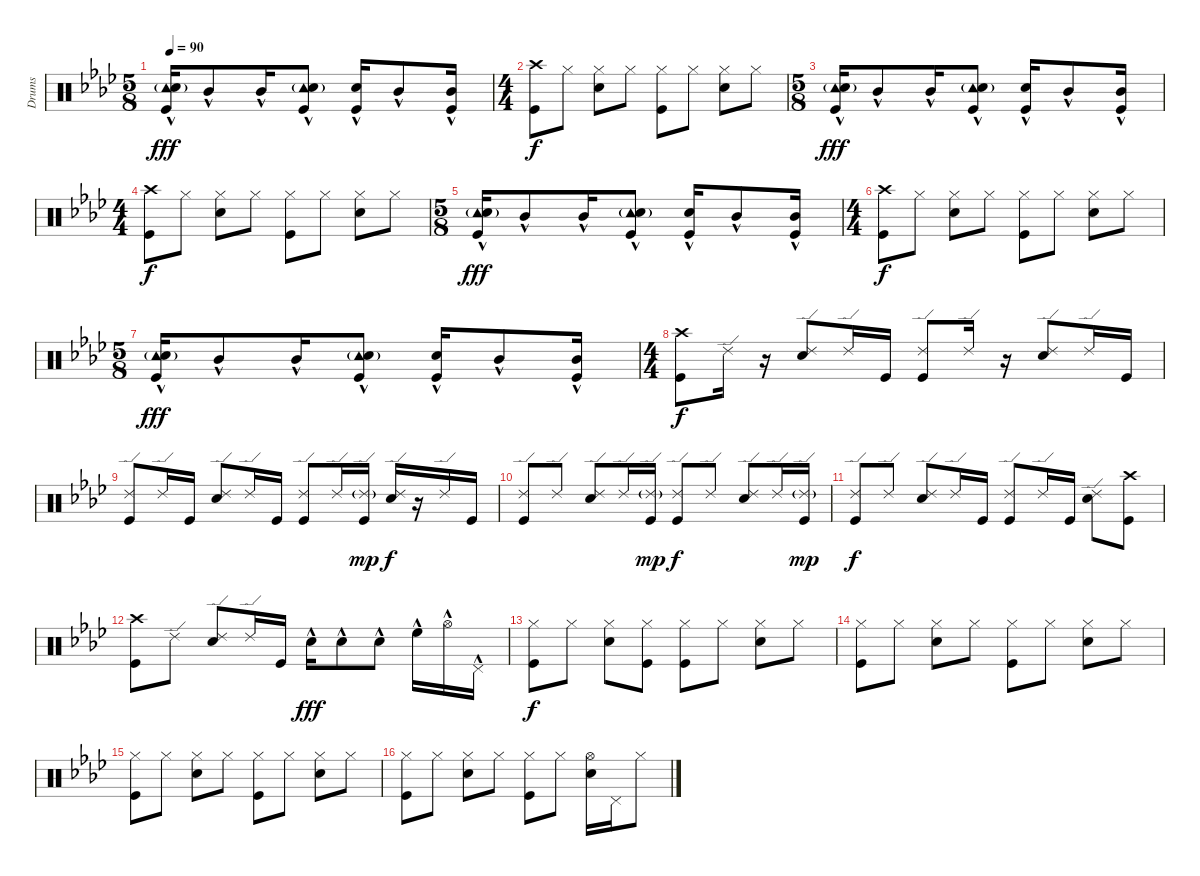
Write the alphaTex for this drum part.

\track ("Drums" "Drums") {instrument percussion}
\staff {score}
\articulation defaults
\ts (5 8)
\tempo 90
\clef neutral
\ks ab
("Tambourine (hit)"{g} "Snare (hit) 2"{hac} "Kick (hit)"{hac}).16{dy fff} "Mid Tom (hit)"{hac}.8 "Mid Tom (hit)"{hac}.16 ("Tambourine (hit)"{g} "Snare (hit) 2"{hac} "Kick (hit)"{hac}).8 ("Snare (hit) 2"{hac} "Kick (hit)"{hac}).16 "Mid Tom (hit)"{hac}.8 ("Mid Tom (hit)"{hac} "Kick (hit)"{hac}).16 |
\ts (4 4)
("Crash high (hit)" "Kick (hit)").8{dy f} "Hi-Hat (closed)".8 ("Hi-Hat (closed)" "Snare (hit) 2").8 "Hi-Hat (closed)".8 ("Hi-Hat (closed)" "Kick (hit)").8 "Hi-Hat (closed)".8 ("Hi-Hat (closed)" "Snare (hit) 2").8 "Hi-Hat (closed)".8 |
\ts (5 8)
("Tambourine (hit)"{g} "Snare (hit) 2"{hac} "Kick (hit)"{hac}).16{dy fff} "Mid Tom (hit)"{hac}.8 "Mid Tom (hit)"{hac}.16 ("Tambourine (hit)"{g} "Snare (hit) 2"{hac} "Kick (hit)"{hac}).8 ("Snare (hit) 2"{hac} "Kick (hit)"{hac}).16 "Mid Tom (hit)"{hac}.8 ("Mid Tom (hit)"{hac} "Kick (hit)"{hac}).16 |
\ts (4 4)
("Crash high (hit)" "Kick (hit)").8{dy f} "Hi-Hat (closed)".8 ("Hi-Hat (closed)" "Snare (hit) 2").8 "Hi-Hat (closed)".8 ("Hi-Hat (closed)" "Kick (hit)").8 "Hi-Hat (closed)".8 ("Hi-Hat (closed)" "Snare (hit) 2").8 "Hi-Hat (closed)".8 |
\ts (5 8)
("Tambourine (hit)"{g} "Snare (hit) 2"{hac} "Kick (hit)"{hac}).16{dy fff} "Mid Tom (hit)"{hac}.8 "Mid Tom (hit)"{hac}.16 ("Tambourine (hit)"{g} "Snare (hit) 2"{hac} "Kick (hit)"{hac}).8 ("Snare (hit) 2"{hac} "Kick (hit)"{hac}).16 "Mid Tom (hit)"{hac}.8 ("Mid Tom (hit)"{hac} "Kick (hit)"{hac}).16 |
\ts (4 4)
("Crash high (hit)" "Kick (hit)").8{dy f} "Hi-Hat (closed)".8 ("Hi-Hat (closed)" "Snare (hit) 2").8 "Hi-Hat (closed)".8 ("Hi-Hat (closed)" "Kick (hit)").8 "Hi-Hat (closed)".8 ("Hi-Hat (closed)" "Snare (hit) 2").8 "Hi-Hat (closed)".8 |
\ts (5 8)
("Tambourine (hit)"{g} "Snare (hit) 2"{hac} "Kick (hit)"{hac}).16{dy fff} "Mid Tom (hit)"{hac}.8 "Mid Tom (hit)"{hac}.16 ("Tambourine (hit)"{g} "Snare (hit) 2"{hac} "Kick (hit)"{hac}).8 ("Snare (hit) 2"{hac} "Kick (hit)"{hac}).16 "Mid Tom (hit)"{hac}.8 ("Mid Tom (hit)"{hac} "Kick (hit)"{hac}).16 |
\ts (4 4)
("Crash high (hit)" "Kick (hit)").8{dy f} "Ride (edge) 2".16 r.16 ("Ride (edge) 2" "Snare (hit) 2").8 "Ride (edge) 2".16 "Kick (hit)".16 ("Ride (edge) 2" "Kick (hit)").8 "Ride (edge) 2".16 r.16 ("Ride (edge) 2" "Snare (hit) 2").8 "Ride (edge) 2".16 "Kick (hit)".16 |
("Ride (edge) 2" "Kick (hit)").8 "Ride (edge) 2".16 "Kick (hit)".16 ("Ride (edge) 2" "Snare (hit) 2").8 "Ride (edge) 2".16 "Kick (hit)".16 ("Ride (edge) 2" "Kick (hit)").8 "Ride (edge) 2".16 ("Ride (edge) 2"{g} "Kick (hit)").16{dy mp} ("Ride (edge) 2" "Snare (hit) 2").16{dy f} r.16 "Ride (edge) 2".16 "Kick (hit)".16 |
("Ride (edge) 2" "Kick (hit)").8 "Ride (edge) 2".8 ("Ride (edge) 2" "Snare (hit) 2").8 "Ride (edge) 2".16 ("Ride (edge) 2"{g} "Kick (hit)").16{dy mp} ("Ride (edge) 2" "Kick (hit)").8{dy f} "Ride (edge) 2".8 ("Ride (edge) 2" "Snare (hit) 2").8 "Ride (edge) 2".16 ("Ride (edge) 2"{g} "Kick (hit)").16{dy mp} |
("Ride (edge) 2" "Kick (hit)").8{dy f} "Ride (edge) 2".8 ("Ride (edge) 2" "Snare (hit) 2").8 "Ride (edge) 2".16 "Kick (hit)".16 ("Ride (edge) 2" "Kick (hit)").8 "Ride (edge) 2".16 "Kick (hit)".16 ("Ride (edge) 2" "Snare (hit) 2").8 ("Crash high (hit)" "Kick (hit)").8 |
("Crash high (hit)" "Kick (hit)").8 "Ride (edge) 2".8 ("Ride (edge) 2" "Snare (hit) 2").8 "Ride (edge) 2".16 "Kick (hit)".16 "Snare (hit) 2"{hac}.16{dy fff} "Snare (hit) 2"{hac}.8 "Snare (hit) 2"{hac}.8 "High Floor Tom (hit)"{hac}.16 "Hi-Hat (open)"{hac}.16 "Pedal Hi-Hat (hit)"{hac}.16 |
("Hi-Hat (closed)" "Kick (hit)").8{dy f} "Hi-Hat (closed)".8 ("Hi-Hat (closed)" "Snare (hit) 2").8 ("Hi-Hat (closed)" "Kick (hit)").8 ("Hi-Hat (closed)" "Kick (hit)").8 "Hi-Hat (closed)".8 ("Hi-Hat (closed)" "Snare (hit) 2").8 "Hi-Hat (closed)".8 |
("Hi-Hat (closed)" "Kick (hit)").8 "Hi-Hat (closed)".8 ("Hi-Hat (closed)" "Snare (hit) 2").8 "Hi-Hat (closed)".8 ("Hi-Hat (closed)" "Kick (hit)").8 "Hi-Hat (closed)".8 ("Hi-Hat (closed)" "Snare (hit) 2").8 "Hi-Hat (closed)".8 |
("Hi-Hat (closed)" "Kick (hit)").8 "Hi-Hat (closed)".8 ("Hi-Hat (closed)" "Snare (hit) 2").8 "Hi-Hat (closed)".8 ("Hi-Hat (closed)" "Kick (hit)").8 "Hi-Hat (closed)".8 ("Hi-Hat (closed)" "Snare (hit) 2").8 "Hi-Hat (closed)".8 |
("Hi-Hat (closed)" "Kick (hit)").8 "Hi-Hat (closed)".8 ("Hi-Hat (closed)" "Snare (hit) 2").8 "Hi-Hat (closed)".8 ("Hi-Hat (closed)" "Kick (hit)").8 "Hi-Hat (closed)".8 ("Hi-Hat (open)" "Snare (hit) 2").16 "Pedal Hi-Hat (hit)".16 "Hi-Hat (closed)".8
